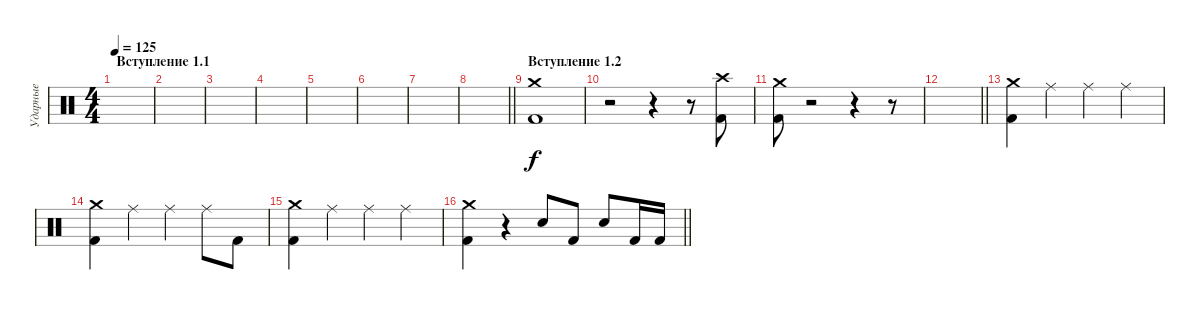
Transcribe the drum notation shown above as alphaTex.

\track ("Ударные" "Ударные") {instrument percussion}
\staff {score}
\articulation defaults
\ts (4 4)
\section ("" "Вступление 1.1")
\tempo 125
\clef neutral
\ks c
|
|
|
|
|
|
|
\barLineRight lightlight
|
\section ("" "Вступление 1.2")
("Kick (hit) 2" "Crash medium (hit)").1 |
r.2 r.4 r.8 ("Crash high (hit)" "Kick (hit) 2").8 |
("Crash medium (hit)" "Kick (hit) 2").8 r.2 r.4 r.8 |
\barLineRight lightlight
|
("Kick (hit) 2" "Crash medium (hit)").4 "Ride (middle)".4 "Ride (middle)".4 "Ride (middle)".4 |
("Kick (hit) 2" "Crash medium (hit)").4 "Ride (middle)".4 "Ride (middle)".4 "Ride (middle)".8 "Kick (hit) 2".8 |
("Kick (hit) 2" "Crash medium (hit)").4 "Ride (middle)".4 "Ride (middle)".4 "Ride (middle)".4 |
\barLineRight lightlight
("Kick (hit) 2" "Crash medium (hit)").4 r.4 "Snare (hit) 2".8 "Kick (hit) 2".8 "Snare (hit) 2".8 "Kick (hit) 2".16 "Kick (hit) 2".16
